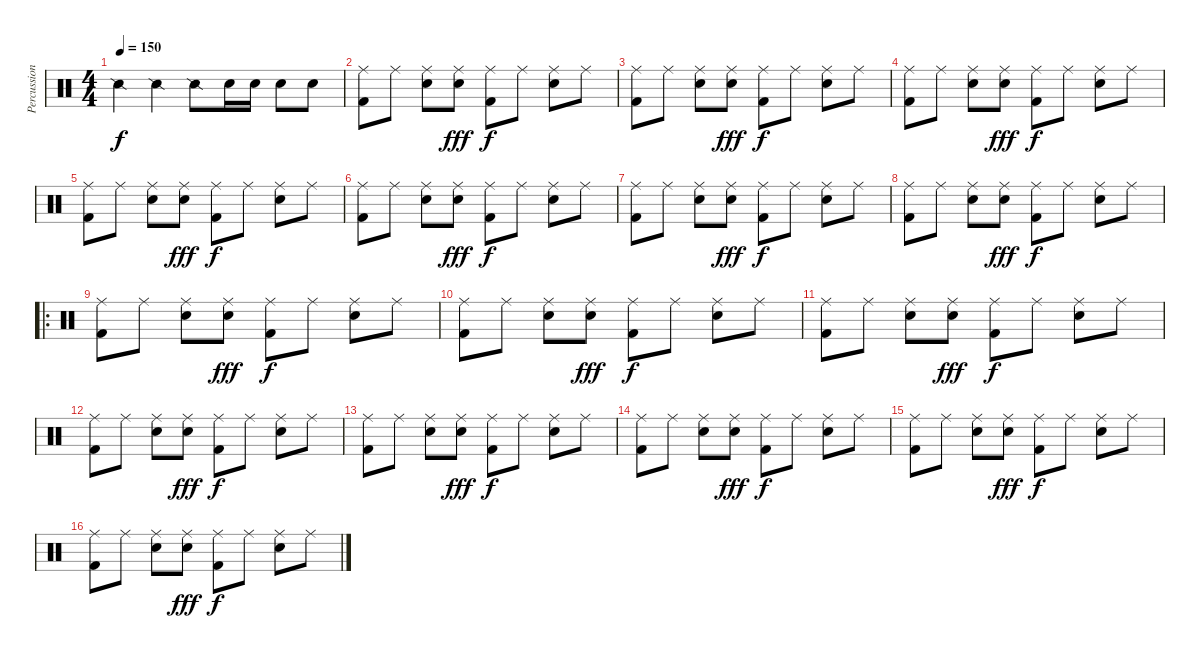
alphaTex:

\track ("Percussions" "Percussion") {instrument percussion}
\staff {score}
\articulation defaults
\ts (4 4)
\tempo 150
\clef neutral
\ks c "Snare (side stick) 2".4{dy f} "Snare (side stick) 2".4 "Snare (side stick) 2".8 "Electric Snare (hit)".16 "Electric Snare (hit)".16 "Electric Snare (hit)".8 "Electric Snare (hit)".8
|
("Ride (middle)" "Kick (hit) 2").8 "Ride (middle)".8 ("Ride (middle)" "Electric Snare (hit)").8 ("Ride (middle)" "Electric Snare (hit)").8{dy fff} ("Ride (middle)" "Kick (hit) 2").8{dy f} "Ride (middle)".8 ("Ride (middle)" "Electric Snare (hit)").8 "Ride (middle)".8 |
("Ride (middle)" "Kick (hit) 2").8 "Ride (middle)".8 ("Ride (middle)" "Electric Snare (hit)").8 ("Ride (middle)" "Electric Snare (hit)").8{dy fff} ("Ride (middle)" "Kick (hit) 2").8{dy f} "Ride (middle)".8 ("Ride (middle)" "Electric Snare (hit)").8 "Ride (middle)".8 |
("Ride (middle)" "Kick (hit) 2").8 "Ride (middle)".8 ("Ride (middle)" "Electric Snare (hit)").8 ("Ride (middle)" "Electric Snare (hit)").8{dy fff} ("Ride (middle)" "Kick (hit) 2").8{dy f} "Ride (middle)".8 ("Ride (middle)" "Electric Snare (hit)").8 "Ride (middle)".8 |
("Ride (middle)" "Kick (hit) 2").8 "Ride (middle)".8 ("Ride (middle)" "Electric Snare (hit)").8 ("Ride (middle)" "Electric Snare (hit)").8{dy fff} ("Ride (middle)" "Kick (hit) 2").8{dy f} "Ride (middle)".8 ("Ride (middle)" "Electric Snare (hit)").8 "Ride (middle)".8 |
("Ride (middle)" "Kick (hit) 2").8 "Ride (middle)".8 ("Ride (middle)" "Electric Snare (hit)").8 ("Ride (middle)" "Electric Snare (hit)").8{dy fff} ("Ride (middle)" "Kick (hit) 2").8{dy f} "Ride (middle)".8 ("Ride (middle)" "Electric Snare (hit)").8 "Ride (middle)".8 |
("Ride (middle)" "Kick (hit) 2").8 "Ride (middle)".8 ("Ride (middle)" "Electric Snare (hit)").8 ("Ride (middle)" "Electric Snare (hit)").8{dy fff} ("Ride (middle)" "Kick (hit) 2").8{dy f} "Ride (middle)".8 ("Ride (middle)" "Electric Snare (hit)").8 "Ride (middle)".8 |
("Ride (middle)" "Kick (hit) 2").8 "Ride (middle)".8 ("Ride (middle)" "Electric Snare (hit)").8 ("Ride (middle)" "Electric Snare (hit)").8{dy fff} ("Ride (middle)" "Kick (hit) 2").8{dy f} "Ride (middle)".8 ("Ride (middle)" "Electric Snare (hit)").8 "Ride (middle)".8 |
\ro
("Ride (middle)" "Kick (hit) 2").8 "Ride (middle)".8 ("Ride (middle)" "Electric Snare (hit)").8 ("Ride (middle)" "Electric Snare (hit)").8{dy fff} ("Ride (middle)" "Kick (hit) 2").8{dy f} "Ride (middle)".8 ("Ride (middle)" "Electric Snare (hit)").8 "Ride (middle)".8 |
("Ride (middle)" "Kick (hit) 2").8 "Ride (middle)".8 ("Ride (middle)" "Electric Snare (hit)").8 ("Ride (middle)" "Electric Snare (hit)").8{dy fff} ("Ride (middle)" "Kick (hit) 2").8{dy f} "Ride (middle)".8 ("Ride (middle)" "Electric Snare (hit)").8 "Ride (middle)".8 |
("Ride (middle)" "Kick (hit) 2").8 "Ride (middle)".8 ("Ride (middle)" "Electric Snare (hit)").8 ("Ride (middle)" "Electric Snare (hit)").8{dy fff} ("Ride (middle)" "Kick (hit) 2").8{dy f} "Ride (middle)".8 ("Ride (middle)" "Electric Snare (hit)").8 "Ride (middle)".8 |
("Ride (middle)" "Kick (hit) 2").8 "Ride (middle)".8 ("Ride (middle)" "Electric Snare (hit)").8 ("Ride (middle)" "Electric Snare (hit)").8{dy fff} ("Ride (middle)" "Kick (hit) 2").8{dy f} "Ride (middle)".8 ("Ride (middle)" "Electric Snare (hit)").8 "Ride (middle)".8 |
("Ride (middle)" "Kick (hit) 2").8 "Ride (middle)".8 ("Ride (middle)" "Electric Snare (hit)").8 ("Ride (middle)" "Electric Snare (hit)").8{dy fff} ("Ride (middle)" "Kick (hit) 2").8{dy f} "Ride (middle)".8 ("Ride (middle)" "Electric Snare (hit)").8 "Ride (middle)".8 |
("Ride (middle)" "Kick (hit) 2").8 "Ride (middle)".8 ("Ride (middle)" "Electric Snare (hit)").8 ("Ride (middle)" "Electric Snare (hit)").8{dy fff} ("Ride (middle)" "Kick (hit) 2").8{dy f} "Ride (middle)".8 ("Ride (middle)" "Electric Snare (hit)").8 "Ride (middle)".8 |
("Ride (middle)" "Kick (hit) 2").8 "Ride (middle)".8 ("Ride (middle)" "Electric Snare (hit)").8 ("Ride (middle)" "Electric Snare (hit)").8{dy fff} ("Ride (middle)" "Kick (hit) 2").8{dy f} "Ride (middle)".8 ("Ride (middle)" "Electric Snare (hit)").8 "Ride (middle)".8 |
("Ride (middle)" "Kick (hit) 2").8 "Ride (middle)".8 ("Ride (middle)" "Electric Snare (hit)").8 ("Ride (middle)" "Electric Snare (hit)").8{dy fff} ("Ride (middle)" "Kick (hit) 2").8{dy f} "Ride (middle)".8 ("Ride (middle)" "Electric Snare (hit)").8 "Ride (middle)".8
